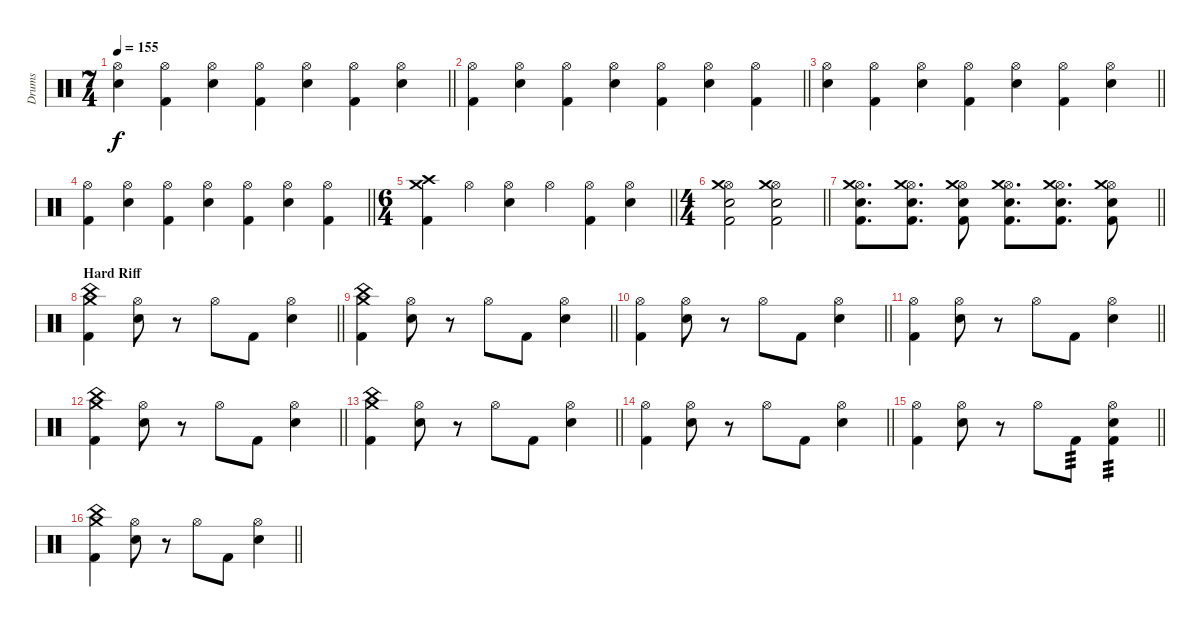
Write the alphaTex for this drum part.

\track ("Drums" "Drums") {instrument percussion}
\staff {score}
\articulation defaults
\ts (7 4)
\tempo 155
\clef neutral
\barLineRight lightlight
\ks c
("Hi-Hat (open)" "Electric Snare (hit)").4{dy f} ("Hi-Hat (open)" "Kick (hit) 2").4 ("Hi-Hat (open)" "Electric Snare (hit)").4 ("Hi-Hat (open)" "Kick (hit) 2").4 ("Hi-Hat (open)" "Electric Snare (hit)").4 ("Hi-Hat (open)" "Kick (hit) 2").4 ("Hi-Hat (open)" "Electric Snare (hit)").4 |
\barLineRight lightlight
("Hi-Hat (open)" "Kick (hit) 2").4 ("Hi-Hat (open)" "Electric Snare (hit)").4 ("Hi-Hat (open)" "Kick (hit) 2").4 ("Hi-Hat (open)" "Electric Snare (hit)").4 ("Hi-Hat (open)" "Kick (hit) 2").4 ("Hi-Hat (open)" "Electric Snare (hit)").4 ("Hi-Hat (open)" "Kick (hit) 2").4 |
\barLineRight lightlight
("Hi-Hat (open)" "Electric Snare (hit)").4 ("Hi-Hat (open)" "Kick (hit) 2").4 ("Hi-Hat (open)" "Electric Snare (hit)").4 ("Hi-Hat (open)" "Kick (hit) 2").4 ("Hi-Hat (open)" "Electric Snare (hit)").4 ("Hi-Hat (open)" "Kick (hit) 2").4 ("Hi-Hat (open)" "Electric Snare (hit)").4 |
\barLineRight lightlight
("Hi-Hat (open)" "Kick (hit) 2").4 ("Hi-Hat (open)" "Electric Snare (hit)").4 ("Hi-Hat (open)" "Kick (hit) 2").4 ("Hi-Hat (open)" "Electric Snare (hit)").4 ("Hi-Hat (open)" "Kick (hit) 2").4 ("Hi-Hat (open)" "Electric Snare (hit)").4 ("Hi-Hat (open)" "Kick (hit) 2").4 |
\ts (6 4)
\barLineRight lightlight
("Crash high (hit)" "Crash medium (hit)" "Kick (hit) 2").4 "Hi-Hat (open)".4 ("Hi-Hat (open)" "Electric Snare (hit)").4 "Hi-Hat (open)".4 ("Hi-Hat (open)" "Kick (hit) 2").4 ("Hi-Hat (open)" "Electric Snare (hit)").4 |
\ts (4 4)
\barLineRight lightlight
("Hi-Hat (open)" "Crash medium (hit)" "Electric Snare (hit)" "Kick (hit) 2").2 ("Hi-Hat (open)" "Crash medium (hit)" "Electric Snare (hit)" "Kick (hit) 2").2 |
\barLineRight lightlight
("Hi-Hat (open)" "Crash medium (hit)" "Electric Snare (hit)" "Kick (hit) 2").8{d} ("Hi-Hat (open)" "Crash medium (hit)" "Electric Snare (hit)" "Kick (hit) 2").8{d} ("Hi-Hat (open)" "Crash medium (hit)" "Electric Snare (hit)" "Kick (hit) 2").8 ("Hi-Hat (open)" "Crash medium (hit)" "Electric Snare (hit)" "Kick (hit) 2").8{d} ("Hi-Hat (open)" "Crash medium (hit)" "Electric Snare (hit)" "Kick (hit) 2").8{d} ("Hi-Hat (open)" "Crash medium (hit)" "Electric Snare (hit)" "Kick (hit) 2").8 |
\section ("" "Hard Riff")
\barLineRight lightlight
("Crash medium (hit)" "China (hit)" "Kick (hit) 2").4 ("Hi-Hat (open)" "Electric Snare (hit)").8 r.8 "Hi-Hat (open)".8 "Kick (hit) 2".8 ("Hi-Hat (open)" "Electric Snare (hit)").4 |
\barLineRight lightlight
("Crash medium (hit)" "China (hit)" "Kick (hit) 2").4 ("Hi-Hat (open)" "Electric Snare (hit)").8 r.8 "Hi-Hat (open)".8 "Kick (hit) 2".8 ("Hi-Hat (open)" "Electric Snare (hit)").4 |
\barLineRight lightlight
("Hi-Hat (open)" "Kick (hit) 2").4 ("Hi-Hat (open)" "Electric Snare (hit)").8 r.8 "Hi-Hat (open)".8 "Kick (hit) 2".8 ("Hi-Hat (open)" "Electric Snare (hit)").4 |
\barLineRight lightlight
("Hi-Hat (open)" "Kick (hit) 2").4 ("Hi-Hat (open)" "Electric Snare (hit)").8 r.8 "Hi-Hat (open)".8 "Kick (hit) 2".8 ("Hi-Hat (open)" "Electric Snare (hit)").4 |
\barLineRight lightlight
("Crash medium (hit)" "China (hit)" "Kick (hit) 2").4 ("Hi-Hat (open)" "Electric Snare (hit)").8 r.8 "Hi-Hat (open)".8 "Kick (hit) 2".8 ("Hi-Hat (open)" "Electric Snare (hit)").4 |
\barLineRight lightlight
("Crash medium (hit)" "China (hit)" "Kick (hit) 2").4 ("Hi-Hat (open)" "Electric Snare (hit)").8 r.8 "Hi-Hat (open)".8 "Kick (hit) 2".8 ("Hi-Hat (open)" "Electric Snare (hit)").4 |
\barLineRight lightlight
("Hi-Hat (open)" "Kick (hit) 2").4 ("Hi-Hat (open)" "Electric Snare (hit)").8 r.8 "Hi-Hat (open)".8 "Kick (hit) 2".8 ("Hi-Hat (open)" "Electric Snare (hit)").4 |
\barLineRight lightlight
("Hi-Hat (open)" "Kick (hit) 2").4 ("Hi-Hat (open)" "Electric Snare (hit)").8 r.8 "Hi-Hat (open)".8 "Kick (hit) 2".8{tp 3} ("Hi-Hat (open)" "Electric Snare (hit)" "Kick (hit) 2").4{tp 3} |
\barLineRight lightlight
("Crash medium (hit)" "China (hit)" "Kick (hit) 2").4 ("Hi-Hat (open)" "Electric Snare (hit)").8 r.8 "Hi-Hat (open)".8 "Kick (hit) 2".8 ("Hi-Hat (open)" "Electric Snare (hit)").4
